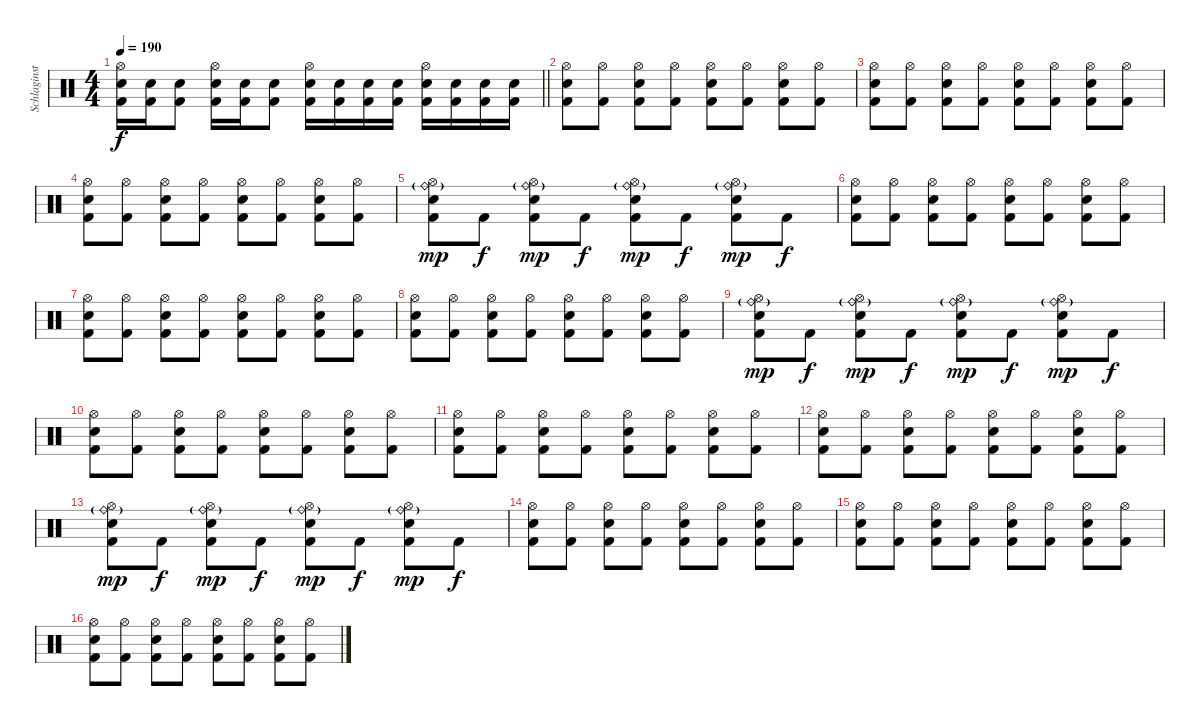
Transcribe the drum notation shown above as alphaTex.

\track ("Schlaginstrumente - Auswahl" "Schlaginst") {instrument percussion}
\staff {score}
\articulation defaults
\ts (4 4)
\tempo 190
\clef neutral
\barLineRight lightlight
\ks c
("Hi-Hat (open)" "Snare (hit) 2" "Kick (hit) 2").16{dy f} ("Snare (hit) 2" "Kick (hit) 2").16 ("Snare (hit) 2" "Kick (hit) 2").8 ("Hi-Hat (open)" "Snare (hit) 2" "Kick (hit) 2").16 ("Snare (hit) 2" "Kick (hit) 2").16 ("Snare (hit) 2" "Kick (hit) 2").8 ("Hi-Hat (open)" "Snare (hit) 2" "Kick (hit) 2").16 ("Snare (hit) 2" "Kick (hit) 2").16 ("Snare (hit) 2" "Kick (hit) 2").16 ("Snare (hit) 2" "Kick (hit) 2").16 ("Hi-Hat (open)" "Snare (hit) 2" "Kick (hit) 2").16 ("Snare (hit) 2" "Kick (hit) 2").16 ("Snare (hit) 2" "Kick (hit) 2").16 ("Snare (hit) 2" "Kick (hit) 2").16 |
("Hi-Hat (open)" "Snare (hit) 2" "Kick (hit) 2").8 ("Hi-Hat (open)" "Kick (hit) 2").8 ("Hi-Hat (open)" "Snare (hit) 2" "Kick (hit) 2").8 ("Hi-Hat (open)" "Kick (hit) 2").8 ("Hi-Hat (open)" "Snare (hit) 2" "Kick (hit) 2").8 ("Hi-Hat (open)" "Kick (hit) 2").8 ("Hi-Hat (open)" "Snare (hit) 2" "Kick (hit) 2").8 ("Hi-Hat (open)" "Kick (hit) 2").8 |
("Hi-Hat (open)" "Snare (hit) 2" "Kick (hit) 2").8 ("Hi-Hat (open)" "Kick (hit) 2").8 ("Hi-Hat (open)" "Snare (hit) 2" "Kick (hit) 2").8 ("Hi-Hat (open)" "Kick (hit) 2").8 ("Hi-Hat (open)" "Snare (hit) 2" "Kick (hit) 2").8 ("Hi-Hat (open)" "Kick (hit) 2").8 ("Hi-Hat (open)" "Snare (hit) 2" "Kick (hit) 2").8 ("Hi-Hat (open)" "Kick (hit) 2").8 |
("Hi-Hat (open)" "Snare (hit) 2" "Kick (hit) 2").8 ("Hi-Hat (open)" "Kick (hit) 2").8 ("Hi-Hat (open)" "Snare (hit) 2" "Kick (hit) 2").8 ("Hi-Hat (open)" "Kick (hit) 2").8 ("Hi-Hat (open)" "Snare (hit) 2" "Kick (hit) 2").8 ("Hi-Hat (open)" "Kick (hit) 2").8 ("Hi-Hat (open)" "Snare (hit) 2" "Kick (hit) 2").8 ("Hi-Hat (open)" "Kick (hit) 2").8 |
("Ride (bell)"{g} "Hi-Hat (open)" "Snare (hit) 2" "Kick (hit) 2").8{dy mp} "Kick (hit) 2".8{dy f} ("Ride (bell)"{g} "Hi-Hat (open)" "Snare (hit) 2" "Kick (hit) 2").8{dy mp} "Kick (hit) 2".8{dy f} ("Ride (bell)"{g} "Hi-Hat (open)" "Snare (hit) 2" "Kick (hit) 2").8{dy mp} "Kick (hit) 2".8{dy f} ("Ride (bell)"{g} "Hi-Hat (open)" "Snare (hit) 2" "Kick (hit) 2").8{dy mp} "Kick (hit) 2".8{dy f} |
("Hi-Hat (open)" "Snare (hit) 2" "Kick (hit) 2").8 ("Hi-Hat (open)" "Kick (hit) 2").8 ("Hi-Hat (open)" "Snare (hit) 2" "Kick (hit) 2").8 ("Hi-Hat (open)" "Kick (hit) 2").8 ("Hi-Hat (open)" "Snare (hit) 2" "Kick (hit) 2").8 ("Hi-Hat (open)" "Kick (hit) 2").8 ("Hi-Hat (open)" "Snare (hit) 2" "Kick (hit) 2").8 ("Hi-Hat (open)" "Kick (hit) 2").8 |
("Hi-Hat (open)" "Snare (hit) 2" "Kick (hit) 2").8 ("Hi-Hat (open)" "Kick (hit) 2").8 ("Hi-Hat (open)" "Snare (hit) 2" "Kick (hit) 2").8 ("Hi-Hat (open)" "Kick (hit) 2").8 ("Hi-Hat (open)" "Snare (hit) 2" "Kick (hit) 2").8 ("Hi-Hat (open)" "Kick (hit) 2").8 ("Hi-Hat (open)" "Snare (hit) 2" "Kick (hit) 2").8 ("Hi-Hat (open)" "Kick (hit) 2").8 |
("Hi-Hat (open)" "Snare (hit) 2" "Kick (hit) 2").8 ("Hi-Hat (open)" "Kick (hit) 2").8 ("Hi-Hat (open)" "Snare (hit) 2" "Kick (hit) 2").8 ("Hi-Hat (open)" "Kick (hit) 2").8 ("Hi-Hat (open)" "Snare (hit) 2" "Kick (hit) 2").8 ("Hi-Hat (open)" "Kick (hit) 2").8 ("Hi-Hat (open)" "Snare (hit) 2" "Kick (hit) 2").8 ("Hi-Hat (open)" "Kick (hit) 2").8 |
("Hi-Hat (open)" "Ride (bell)"{g} "Snare (hit) 2" "Kick (hit) 2").8{dy mp} "Kick (hit) 2".8{dy f} ("Hi-Hat (open)" "Ride (bell)"{g} "Snare (hit) 2" "Kick (hit) 2").8{dy mp} "Kick (hit) 2".8{dy f} ("Hi-Hat (open)" "Ride (bell)"{g} "Snare (hit) 2" "Kick (hit) 2").8{dy mp} "Kick (hit) 2".8{dy f} ("Hi-Hat (open)" "Ride (bell)"{g} "Snare (hit) 2" "Kick (hit) 2").8{dy mp} "Kick (hit) 2".8{dy f} |
("Hi-Hat (open)" "Snare (hit) 2" "Kick (hit) 2").8 ("Hi-Hat (open)" "Kick (hit) 2").8 ("Hi-Hat (open)" "Snare (hit) 2" "Kick (hit) 2").8 ("Hi-Hat (open)" "Kick (hit) 2").8 ("Hi-Hat (open)" "Snare (hit) 2" "Kick (hit) 2").8 ("Hi-Hat (open)" "Kick (hit) 2").8 ("Hi-Hat (open)" "Snare (hit) 2" "Kick (hit) 2").8 ("Hi-Hat (open)" "Kick (hit) 2").8 |
("Hi-Hat (open)" "Snare (hit) 2" "Kick (hit) 2").8 ("Hi-Hat (open)" "Kick (hit) 2").8 ("Hi-Hat (open)" "Snare (hit) 2" "Kick (hit) 2").8 ("Hi-Hat (open)" "Kick (hit) 2").8 ("Hi-Hat (open)" "Snare (hit) 2" "Kick (hit) 2").8 ("Hi-Hat (open)" "Kick (hit) 2").8 ("Hi-Hat (open)" "Snare (hit) 2" "Kick (hit) 2").8 ("Hi-Hat (open)" "Kick (hit) 2").8 |
("Hi-Hat (open)" "Snare (hit) 2" "Kick (hit) 2").8 ("Hi-Hat (open)" "Kick (hit) 2").8 ("Hi-Hat (open)" "Snare (hit) 2" "Kick (hit) 2").8 ("Hi-Hat (open)" "Kick (hit) 2").8 ("Hi-Hat (open)" "Snare (hit) 2" "Kick (hit) 2").8 ("Hi-Hat (open)" "Kick (hit) 2").8 ("Hi-Hat (open)" "Snare (hit) 2" "Kick (hit) 2").8 ("Hi-Hat (open)" "Kick (hit) 2").8 |
("Hi-Hat (open)" "Ride (bell)"{g} "Snare (hit) 2" "Kick (hit) 2").8{dy mp} "Kick (hit) 2".8{dy f} ("Hi-Hat (open)" "Ride (bell)"{g} "Snare (hit) 2" "Kick (hit) 2").8{dy mp} "Kick (hit) 2".8{dy f} ("Hi-Hat (open)" "Ride (bell)"{g} "Snare (hit) 2" "Kick (hit) 2").8{dy mp} "Kick (hit) 2".8{dy f} ("Hi-Hat (open)" "Ride (bell)"{g} "Snare (hit) 2" "Kick (hit) 2").8{dy mp} "Kick (hit) 2".8{dy f} |
("Hi-Hat (open)" "Snare (hit) 2" "Kick (hit) 2").8 ("Hi-Hat (open)" "Kick (hit) 2").8 ("Hi-Hat (open)" "Snare (hit) 2" "Kick (hit) 2").8 ("Hi-Hat (open)" "Kick (hit) 2").8 ("Hi-Hat (open)" "Snare (hit) 2" "Kick (hit) 2").8 ("Hi-Hat (open)" "Kick (hit) 2").8 ("Hi-Hat (open)" "Snare (hit) 2" "Kick (hit) 2").8 ("Hi-Hat (open)" "Kick (hit) 2").8 |
("Hi-Hat (open)" "Snare (hit) 2" "Kick (hit) 2").8 ("Hi-Hat (open)" "Kick (hit) 2").8 ("Hi-Hat (open)" "Snare (hit) 2" "Kick (hit) 2").8 ("Hi-Hat (open)" "Kick (hit) 2").8 ("Hi-Hat (open)" "Snare (hit) 2" "Kick (hit) 2").8 ("Hi-Hat (open)" "Kick (hit) 2").8 ("Hi-Hat (open)" "Snare (hit) 2" "Kick (hit) 2").8 ("Hi-Hat (open)" "Kick (hit) 2").8 |
("Hi-Hat (open)" "Snare (hit) 2" "Kick (hit) 2").8 ("Hi-Hat (open)" "Kick (hit) 2").8 ("Hi-Hat (open)" "Snare (hit) 2" "Kick (hit) 2").8 ("Hi-Hat (open)" "Kick (hit) 2").8 ("Hi-Hat (open)" "Snare (hit) 2" "Kick (hit) 2").8 ("Hi-Hat (open)" "Kick (hit) 2").8 ("Hi-Hat (open)" "Snare (hit) 2" "Kick (hit) 2").8 ("Hi-Hat (open)" "Kick (hit) 2").8
